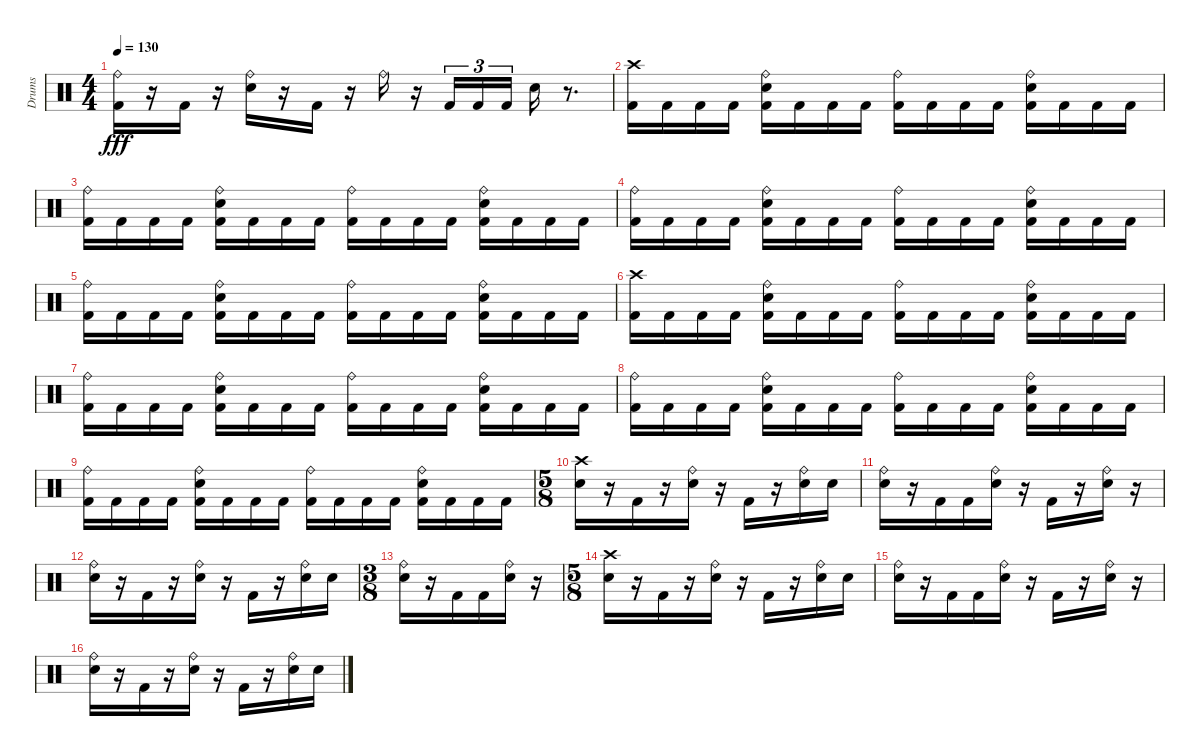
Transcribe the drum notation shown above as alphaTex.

\track ("Drums" "Drums") {instrument percussion}
\staff {score}
\articulation defaults
\ts (4 4)
\tempo 130
\clef neutral
\ks c
("Ride (bell)" "Kick (hit) 2").16{dy fff} r.16 "Kick (hit) 2".16 r.16 ("Electric Snare (hit)" "Ride (bell)").16 r.16 "Kick (hit) 2".16 r.16 "Ride (bell)".16 r.16 "Kick (hit) 2".16{tu (3 2)} "Kick (hit) 2".16{tu (3 2)} "Kick (hit) 2".16{tu (3 2)} "Electric Snare (hit)".16 r.8{d} |
("Crash high (hit)" "Kick (hit) 2").16 "Kick (hit) 2".16 "Kick (hit) 2".16 "Kick (hit) 2".16 ("Kick (hit) 2" "Ride (bell)" "Electric Snare (hit)").16 "Kick (hit) 2".16 "Kick (hit) 2".16 "Kick (hit) 2".16 ("Ride (bell)" "Kick (hit) 2").16 "Kick (hit) 2".16 "Kick (hit) 2".16 "Kick (hit) 2".16 ("Electric Snare (hit)" "Ride (bell)" "Kick (hit) 2").16 "Kick (hit) 2".16 "Kick (hit) 2".16 "Kick (hit) 2".16 |
("Ride (bell)" "Kick (hit) 2").16 "Kick (hit) 2".16 "Kick (hit) 2".16 "Kick (hit) 2".16 ("Kick (hit) 2" "Electric Snare (hit)" "Ride (bell)").16 "Kick (hit) 2".16 "Kick (hit) 2".16 "Kick (hit) 2".16 ("Kick (hit) 2" "Ride (bell)").16 "Kick (hit) 2".16 "Kick (hit) 2".16 "Kick (hit) 2".16 ("Kick (hit) 2" "Electric Snare (hit)" "Ride (bell)").16 "Kick (hit) 2".16 "Kick (hit) 2".16 "Kick (hit) 2".16 |
("Ride (bell)" "Kick (hit) 2").16 "Kick (hit) 2".16 "Kick (hit) 2".16 "Kick (hit) 2".16 ("Kick (hit) 2" "Electric Snare (hit)" "Ride (bell)").16 "Kick (hit) 2".16 "Kick (hit) 2".16 "Kick (hit) 2".16 ("Kick (hit) 2" "Ride (bell)").16 "Kick (hit) 2".16 "Kick (hit) 2".16 "Kick (hit) 2".16 ("Kick (hit) 2" "Ride (bell)" "Electric Snare (hit)").16 "Kick (hit) 2".16 "Kick (hit) 2".16 "Kick (hit) 2".16 |
("Kick (hit) 2" "Ride (bell)").16 "Kick (hit) 2".16 "Kick (hit) 2".16 "Kick (hit) 2".16 ("Kick (hit) 2" "Ride (bell)" "Electric Snare (hit)").16 "Kick (hit) 2".16 "Kick (hit) 2".16 "Kick (hit) 2".16 ("Kick (hit) 2" "Ride (bell)").16 "Kick (hit) 2".16 "Kick (hit) 2".16 "Kick (hit) 2".16 ("Ride (bell)" "Kick (hit) 2" "Electric Snare (hit)").16 "Kick (hit) 2".16 "Kick (hit) 2".16 "Kick (hit) 2".16 |
("Kick (hit) 2" "Crash high (hit)").16 "Kick (hit) 2".16 "Kick (hit) 2".16 "Kick (hit) 2".16 ("Electric Snare (hit)" "Ride (bell)" "Kick (hit) 2").16 "Kick (hit) 2".16 "Kick (hit) 2".16 "Kick (hit) 2".16 ("Kick (hit) 2" "Ride (bell)").16 "Kick (hit) 2".16 "Kick (hit) 2".16 "Kick (hit) 2".16 ("Kick (hit) 2" "Ride (bell)" "Electric Snare (hit)").16 "Kick (hit) 2".16 "Kick (hit) 2".16 "Kick (hit) 2".16 |
("Kick (hit) 2" "Ride (bell)").16 "Kick (hit) 2".16 "Kick (hit) 2".16 "Kick (hit) 2".16 ("Ride (bell)" "Electric Snare (hit)" "Kick (hit) 2").16 "Kick (hit) 2".16 "Kick (hit) 2".16 "Kick (hit) 2".16 ("Ride (bell)" "Kick (hit) 2").16 "Kick (hit) 2".16 "Kick (hit) 2".16 "Kick (hit) 2".16 ("Ride (bell)" "Electric Snare (hit)" "Kick (hit) 2").16 "Kick (hit) 2".16 "Kick (hit) 2".16 "Kick (hit) 2".16 |
("Kick (hit) 2" "Ride (bell)").16 "Kick (hit) 2".16 "Kick (hit) 2".16 "Kick (hit) 2".16 ("Ride (bell)" "Electric Snare (hit)" "Kick (hit) 2").16 "Kick (hit) 2".16 "Kick (hit) 2".16 "Kick (hit) 2".16 ("Ride (bell)" "Kick (hit) 2").16 "Kick (hit) 2".16 "Kick (hit) 2".16 "Kick (hit) 2".16 ("Electric Snare (hit)" "Ride (bell)" "Kick (hit) 2").16 "Kick (hit) 2".16 "Kick (hit) 2".16 "Kick (hit) 2".16 |
("Ride (bell)" "Kick (hit) 2").16 "Kick (hit) 2".16 "Kick (hit) 2".16 "Kick (hit) 2".16 ("Electric Snare (hit)" "Ride (bell)" "Kick (hit) 2").16 "Kick (hit) 2".16 "Kick (hit) 2".16 "Kick (hit) 2".16 ("Ride (bell)" "Kick (hit) 2").16 "Kick (hit) 2".16 "Kick (hit) 2".16 "Kick (hit) 2".16 ("Ride (bell)" "Electric Snare (hit)" "Kick (hit) 2").16 "Kick (hit) 2".16 "Kick (hit) 2".16 "Kick (hit) 2".16 |
\ts (5 8)
("Electric Snare (hit)" "Crash high (hit)").16 r.16 "Kick (hit) 2".16 r.16 ("Electric Snare (hit)" "Ride (bell)").16 r.16 "Kick (hit) 2".16 r.16 ("Electric Snare (hit)" "Ride (bell)").16 "Electric Snare (hit)".16 |
("Electric Snare (hit)" "Ride (bell)").16 r.16 "Kick (hit) 2".16 "Kick (hit) 2".16 ("Electric Snare (hit)" "Ride (bell)").16 r.16 "Kick (hit) 2".16 r.16 ("Electric Snare (hit)" "Ride (bell)").16 r.16 |
("Electric Snare (hit)" "Ride (bell)").16 r.16 "Kick (hit) 2".16 r.16 ("Electric Snare (hit)" "Ride (bell)").16 r.16 "Kick (hit) 2".16 r.16 ("Electric Snare (hit)" "Ride (bell)").16 "Electric Snare (hit)".16 |
\ts (3 8)
("Electric Snare (hit)" "Ride (bell)").16 r.16 "Kick (hit) 2".16 "Kick (hit) 2".16 ("Electric Snare (hit)" "Ride (bell)").16 r.16 |
\ts (5 8)
("Crash high (hit)" "Electric Snare (hit)").16 r.16 "Kick (hit) 2".16 r.16 ("Ride (bell)" "Electric Snare (hit)").16 r.16 "Kick (hit) 2".16 r.16 ("Ride (bell)" "Electric Snare (hit)").16 "Electric Snare (hit)".16 |
("Ride (bell)" "Electric Snare (hit)").16 r.16 "Kick (hit) 2".16 "Kick (hit) 2".16 ("Ride (bell)" "Electric Snare (hit)").16 r.16 "Kick (hit) 2".16 r.16 ("Ride (bell)" "Electric Snare (hit)").16 r.16 |
("Ride (bell)" "Electric Snare (hit)").16 r.16 "Kick (hit) 2".16 r.16 ("Ride (bell)" "Electric Snare (hit)").16 r.16 "Kick (hit) 2".16 r.16 ("Ride (bell)" "Electric Snare (hit)").16 "Electric Snare (hit)".16
